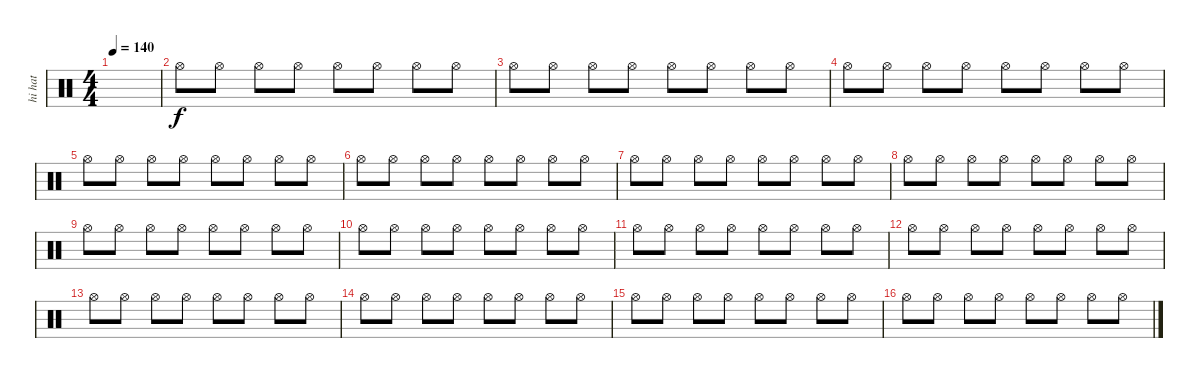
\track ("hi hat" "hi hat") {instrument percussion}
\staff {score}
\articulation defaults
\ts (4 4)
\tempo 140
\clef neutral
\ks c
|
"Hi-Hat (open)".8 "Hi-Hat (open)".8 "Hi-Hat (open)".8 "Hi-Hat (open)".8 "Hi-Hat (open)".8 "Hi-Hat (open)".8 "Hi-Hat (open)".8 "Hi-Hat (open)".8 |
"Hi-Hat (open)".8 "Hi-Hat (open)".8 "Hi-Hat (open)".8 "Hi-Hat (open)".8 "Hi-Hat (open)".8 "Hi-Hat (open)".8 "Hi-Hat (open)".8 "Hi-Hat (open)".8 |
"Hi-Hat (open)".8 "Hi-Hat (open)".8 "Hi-Hat (open)".8 "Hi-Hat (open)".8 "Hi-Hat (open)".8 "Hi-Hat (open)".8 "Hi-Hat (open)".8 "Hi-Hat (open)".8 |
"Hi-Hat (open)".8 "Hi-Hat (open)".8 "Hi-Hat (open)".8 "Hi-Hat (open)".8 "Hi-Hat (open)".8 "Hi-Hat (open)".8 "Hi-Hat (open)".8 "Hi-Hat (open)".8 |
"Hi-Hat (open)".8 "Hi-Hat (open)".8 "Hi-Hat (open)".8 "Hi-Hat (open)".8 "Hi-Hat (open)".8 "Hi-Hat (open)".8 "Hi-Hat (open)".8 "Hi-Hat (open)".8 |
"Hi-Hat (open)".8 "Hi-Hat (open)".8 "Hi-Hat (open)".8 "Hi-Hat (open)".8 "Hi-Hat (open)".8 "Hi-Hat (open)".8 "Hi-Hat (open)".8 "Hi-Hat (open)".8 |
"Hi-Hat (open)".8 "Hi-Hat (open)".8 "Hi-Hat (open)".8 "Hi-Hat (open)".8 "Hi-Hat (open)".8 "Hi-Hat (open)".8 "Hi-Hat (open)".8 "Hi-Hat (open)".8 |
"Hi-Hat (open)".8 "Hi-Hat (open)".8 "Hi-Hat (open)".8 "Hi-Hat (open)".8 "Hi-Hat (open)".8 "Hi-Hat (open)".8 "Hi-Hat (open)".8 "Hi-Hat (open)".8 |
"Hi-Hat (open)".8 "Hi-Hat (open)".8 "Hi-Hat (open)".8 "Hi-Hat (open)".8 "Hi-Hat (open)".8 "Hi-Hat (open)".8 "Hi-Hat (open)".8 "Hi-Hat (open)".8 |
"Hi-Hat (open)".8 "Hi-Hat (open)".8 "Hi-Hat (open)".8 "Hi-Hat (open)".8 "Hi-Hat (open)".8 "Hi-Hat (open)".8 "Hi-Hat (open)".8 "Hi-Hat (open)".8 |
"Hi-Hat (open)".8 "Hi-Hat (open)".8 "Hi-Hat (open)".8 "Hi-Hat (open)".8 "Hi-Hat (open)".8 "Hi-Hat (open)".8 "Hi-Hat (open)".8 "Hi-Hat (open)".8 |
"Hi-Hat (open)".8 "Hi-Hat (open)".8 "Hi-Hat (open)".8 "Hi-Hat (open)".8 "Hi-Hat (open)".8 "Hi-Hat (open)".8 "Hi-Hat (open)".8 "Hi-Hat (open)".8 |
"Hi-Hat (open)".8 "Hi-Hat (open)".8 "Hi-Hat (open)".8 "Hi-Hat (open)".8 "Hi-Hat (open)".8 "Hi-Hat (open)".8 "Hi-Hat (open)".8 "Hi-Hat (open)".8 |
"Hi-Hat (open)".8 "Hi-Hat (open)".8 "Hi-Hat (open)".8 "Hi-Hat (open)".8 "Hi-Hat (open)".8 "Hi-Hat (open)".8 "Hi-Hat (open)".8 "Hi-Hat (open)".8 |
"Hi-Hat (open)".8 "Hi-Hat (open)".8 "Hi-Hat (open)".8 "Hi-Hat (open)".8 "Hi-Hat (open)".8 "Hi-Hat (open)".8 "Hi-Hat (open)".8 "Hi-Hat (open)".8
